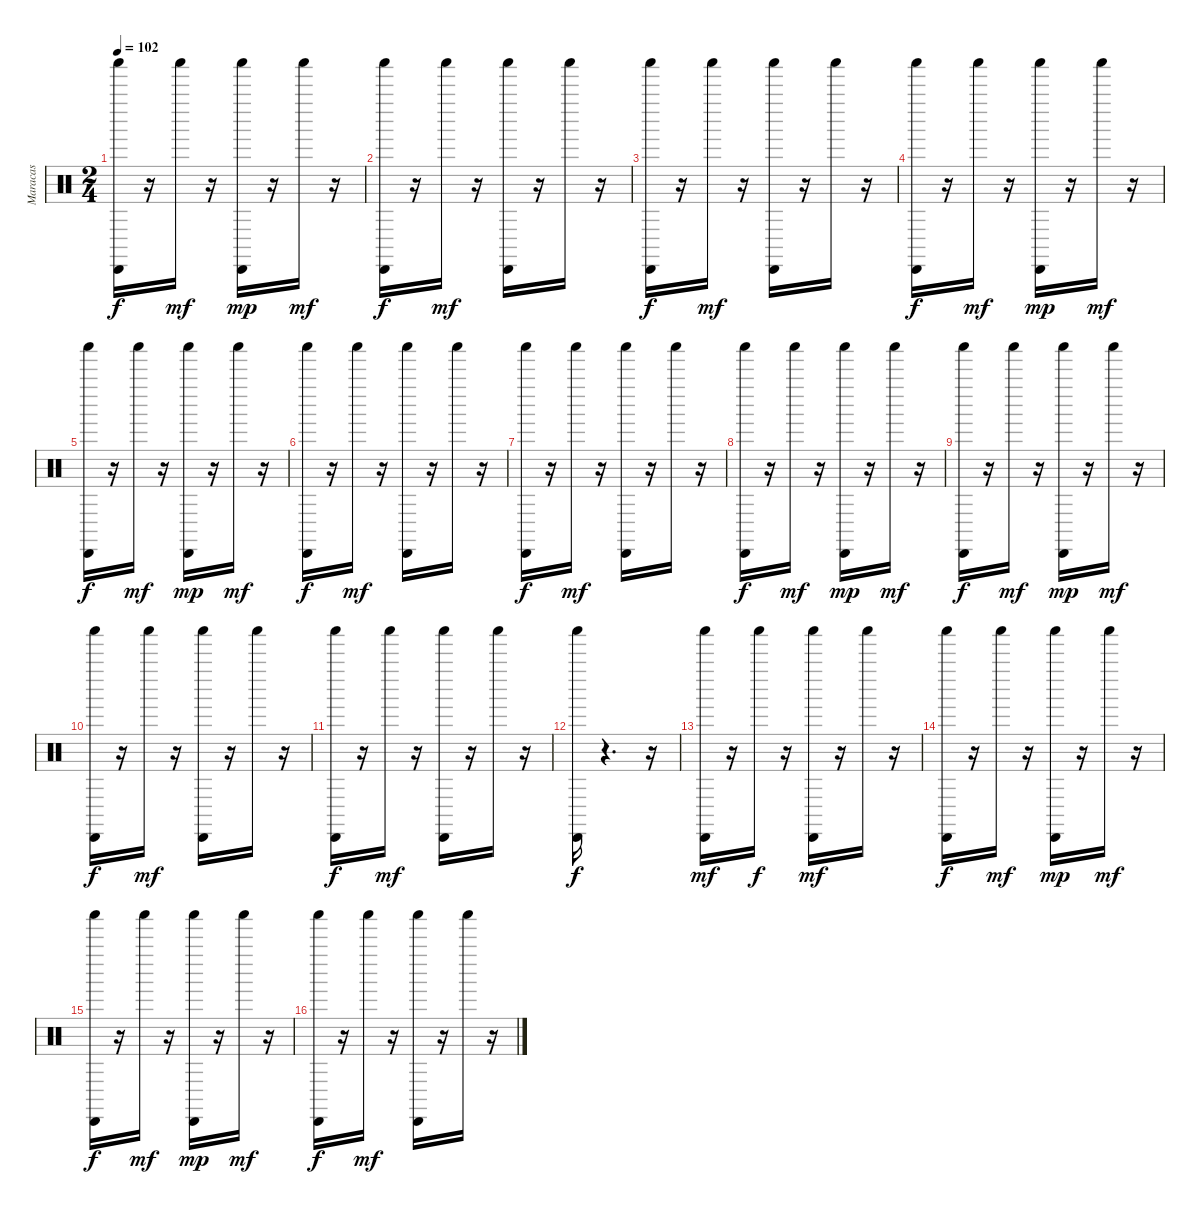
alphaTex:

\track ("Maracas" "Maracas") {instrument percussion}
\staff {score}
\articulation defaults
\ts (2 4)
\tempo 102
\clef neutral
\ks c
("Cabasa (hit)" "Shaker (hit)").16{dy f} r.16 "Shaker (hit)".16{dy mf} r.16 ("Cabasa (hit)" "Shaker (hit)").16{dy mp} r.16 "Shaker (hit)".16{dy mf} r.16 |
("Cabasa (hit)" "Shaker (hit)").16{dy f} r.16 "Shaker (hit)".16{dy mf} r.16 ("Cabasa (hit)" "Shaker (hit)").16 r.16 "Shaker (hit)".16 r.16 |
("Shaker (hit)" "Cabasa (hit)").16{dy f} r.16 "Shaker (hit)".16{dy mf} r.16 ("Shaker (hit)" "Cabasa (hit)").16 r.16 "Shaker (hit)".16 r.16 |
("Shaker (hit)" "Cabasa (hit)").16{dy f} r.16 "Shaker (hit)".16{dy mf} r.16 ("Shaker (hit)" "Cabasa (hit)").16{dy mp} r.16 "Shaker (hit)".16{dy mf} r.16 |
("Cabasa (hit)" "Shaker (hit)").16{dy f} r.16 "Shaker (hit)".16{dy mf} r.16 ("Cabasa (hit)" "Shaker (hit)").16{dy mp} r.16 "Shaker (hit)".16{dy mf} r.16 |
("Cabasa (hit)" "Shaker (hit)").16{dy f} r.16 "Shaker (hit)".16{dy mf} r.16 ("Cabasa (hit)" "Shaker (hit)").16 r.16 "Shaker (hit)".16 r.16 |
("Shaker (hit)" "Cabasa (hit)").16{dy f} r.16 "Shaker (hit)".16{dy mf} r.16 ("Shaker (hit)" "Cabasa (hit)").16 r.16 "Shaker (hit)".16 r.16 |
("Shaker (hit)" "Cabasa (hit)").16{dy f} r.16 "Shaker (hit)".16{dy mf} r.16 ("Shaker (hit)" "Cabasa (hit)").16{dy mp} r.16 "Shaker (hit)".16{dy mf} r.16 |
("Cabasa (hit)" "Shaker (hit)").16{dy f} r.16 "Shaker (hit)".16{dy mf} r.16 ("Cabasa (hit)" "Shaker (hit)").16{dy mp} r.16 "Shaker (hit)".16{dy mf} r.16 |
("Cabasa (hit)" "Shaker (hit)").16{dy f} r.16 "Shaker (hit)".16{dy mf} r.16 ("Cabasa (hit)" "Shaker (hit)").16 r.16 "Shaker (hit)".16 r.16 |
("Shaker (hit)" "Cabasa (hit)").16{dy f} r.16 "Shaker (hit)".16{dy mf} r.16 ("Shaker (hit)" "Cabasa (hit)").16 r.16 "Shaker (hit)".16 r.16 |
("Shaker (hit)" "Cabasa (hit)").16{dy f} r.4{d} r.16 |
("Shaker (hit)" "Cabasa (hit)").16{dy mf} r.16 "Shaker (hit)".16{dy f} r.16 ("Shaker (hit)" "Cabasa (hit)").16{dy mf} r.16 "Shaker (hit)".16 r.16 |
("Shaker (hit)" "Cabasa (hit)").16{dy f} r.16 "Shaker (hit)".16{dy mf} r.16 ("Shaker (hit)" "Cabasa (hit)").16{dy mp} r.16 "Shaker (hit)".16{dy mf} r.16 |
("Cabasa (hit)" "Shaker (hit)").16{dy f} r.16 "Shaker (hit)".16{dy mf} r.16 ("Cabasa (hit)" "Shaker (hit)").16{dy mp} r.16 "Shaker (hit)".16{dy mf} r.16 |
("Cabasa (hit)" "Shaker (hit)").16{dy f} r.16 "Shaker (hit)".16{dy mf} r.16 ("Cabasa (hit)" "Shaker (hit)").16 r.16 "Shaker (hit)".16 r.16
